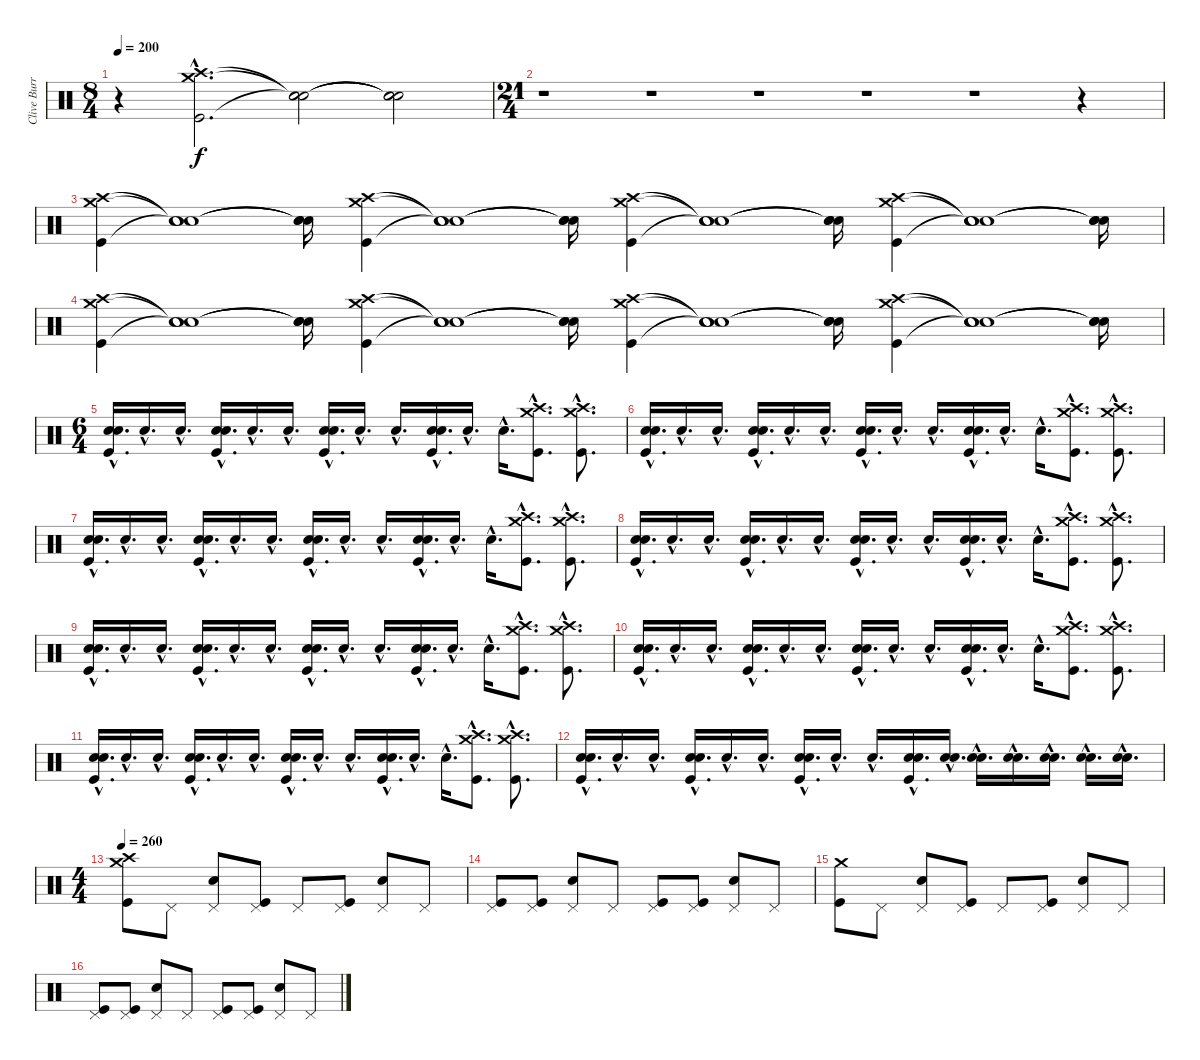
\track ("Clive Burr" "Clive Burr") {instrument percussion}
\staff {score}
\articulation defaults
\ts (8 4)
\tempo 200
\clef neutral
\ks c
r.4{dy f} ("Crash medium (hit)"{hac} "Crash high (hit)"{hac} "Kick (hit)"{hac}).2{d} ("Snare (hit)"{t} "Snare (hit)"{t} "Snare (hit)"{t}).2 ("Snare (hit)"{t} "Snare (hit)"{t} "Snare (hit)"{t}).2 |
\ts (21 4)
r.1 r.1 r.1 r.1 r.1 r.4 |
("Crash medium (hit)" "Crash high (hit)" "Kick (hit)").4 ("Snare (hit)"{t} "Snare (hit)"{t} "Snare (hit)"{t}).1 ("Snare (hit)"{t} "Snare (hit)"{t} "Snare (hit)"{t}).16 ("Crash medium (hit)" "Crash high (hit)" "Kick (hit)").4 ("Snare (hit)"{t} "Snare (hit)"{t} "Snare (hit)"{t}).1 ("Snare (hit)"{t} "Snare (hit)"{t} "Snare (hit)"{t}).16 ("Crash medium (hit)" "Crash high (hit)" "Kick (hit)").4 ("Snare (hit)"{t} "Snare (hit)"{t} "Snare (hit)"{t}).1 ("Snare (hit)"{t} "Snare (hit)"{t} "Snare (hit)"{t}).16 ("Crash medium (hit)" "Crash high (hit)" "Kick (hit)").4 ("Snare (hit)"{t} "Snare (hit)"{t} "Snare (hit)"{t}).1 ("Snare (hit)"{t} "Snare (hit)"{t} "Snare (hit)"{t}).16 |
("Crash medium (hit)" "Crash high (hit)" "Kick (hit)").4 ("Snare (hit)"{t} "Snare (hit)"{t} "Snare (hit)"{t}).1 ("Snare (hit)"{t} "Snare (hit)"{t} "Snare (hit)"{t}).16 ("Crash medium (hit)" "Crash high (hit)" "Kick (hit)").4 ("Snare (hit)"{t} "Snare (hit)"{t} "Snare (hit)"{t}).1 ("Snare (hit)"{t} "Snare (hit)"{t} "Snare (hit)"{t}).16 ("Crash medium (hit)" "Crash high (hit)" "Kick (hit)").4 ("Snare (hit)"{t} "Snare (hit)"{t} "Snare (hit)"{t}).1 ("Snare (hit)"{t} "Snare (hit)"{t} "Snare (hit)"{t}).16 ("Crash medium (hit)" "Crash high (hit)" "Kick (hit)").4 ("Snare (hit)"{t} "Snare (hit)"{t} "Snare (hit)"{t}).1 ("Snare (hit)"{t} "Snare (hit)"{t} "Snare (hit)"{t}).16 |
\ts (6 4)
("Snare (hit) 2"{hac} "Snare (hit) 2"{hac} "Kick (hit)"{hac}).16{d} "Snare (hit) 2"{hac}.16{d} "Snare (hit) 2"{hac}.16{d} ("Snare (hit) 2"{hac} "Snare (hit) 2"{hac} "Kick (hit)"{hac}).16{d} "Snare (hit) 2"{hac}.16{d} "Snare (hit) 2"{hac}.16{d} ("Snare (hit) 2"{hac} "Snare (hit) 2"{hac} "Kick (hit)"{hac}).16{d} "Snare (hit) 2"{hac}.16{d} "Snare (hit) 2"{hac}.16{d} ("Snare (hit) 2"{hac} "Snare (hit) 2"{hac} "Kick (hit)"{hac}).16{d} "Snare (hit) 2"{hac}.16{d} "Snare (hit) 2"{hac}.16{d} ("Crash medium (hit)"{hac} "Crash high (hit)"{hac} "Kick (hit)"{hac}).8{d} ("Crash medium (hit)"{hac} "Crash high (hit)"{hac} "Kick (hit)"{hac}).8{d} |
("Snare (hit) 2"{hac} "Snare (hit) 2"{hac} "Kick (hit)"{hac}).16{d} "Snare (hit) 2"{hac}.16{d} "Snare (hit) 2"{hac}.16{d} ("Snare (hit) 2"{hac} "Snare (hit) 2"{hac} "Kick (hit)"{hac}).16{d} "Snare (hit) 2"{hac}.16{d} "Snare (hit) 2"{hac}.16{d} ("Snare (hit) 2"{hac} "Snare (hit) 2"{hac} "Kick (hit)"{hac}).16{d} "Snare (hit) 2"{hac}.16{d} "Snare (hit) 2"{hac}.16{d} ("Snare (hit) 2"{hac} "Snare (hit) 2"{hac} "Kick (hit)"{hac}).16{d} "Snare (hit) 2"{hac}.16{d} "Snare (hit) 2"{hac}.16{d} ("Crash medium (hit)"{hac} "Crash high (hit)"{hac} "Kick (hit)"{hac}).8{d} ("Crash medium (hit)"{hac} "Crash high (hit)"{hac} "Kick (hit)"{hac}).8{d} |
("Snare (hit) 2"{hac} "Snare (hit) 2"{hac} "Kick (hit)"{hac}).16{d} "Snare (hit) 2"{hac}.16{d} "Snare (hit) 2"{hac}.16{d} ("Snare (hit) 2"{hac} "Snare (hit) 2"{hac} "Kick (hit)"{hac}).16{d} "Snare (hit) 2"{hac}.16{d} "Snare (hit) 2"{hac}.16{d} ("Snare (hit) 2"{hac} "Snare (hit) 2"{hac} "Kick (hit)"{hac}).16{d} "Snare (hit) 2"{hac}.16{d} "Snare (hit) 2"{hac}.16{d} ("Snare (hit) 2"{hac} "Snare (hit) 2"{hac} "Kick (hit)"{hac}).16{d} "Snare (hit) 2"{hac}.16{d} "Snare (hit) 2"{hac}.16{d} ("Crash medium (hit)"{hac} "Crash high (hit)"{hac} "Kick (hit)"{hac}).8{d} ("Crash medium (hit)"{hac} "Crash high (hit)"{hac} "Kick (hit)"{hac}).8{d} |
("Snare (hit) 2"{hac} "Snare (hit) 2"{hac} "Kick (hit)"{hac}).16{d} "Snare (hit) 2"{hac}.16{d} "Snare (hit) 2"{hac}.16{d} ("Snare (hit) 2"{hac} "Snare (hit) 2"{hac} "Kick (hit)"{hac}).16{d} "Snare (hit) 2"{hac}.16{d} "Snare (hit) 2"{hac}.16{d} ("Snare (hit) 2"{hac} "Snare (hit) 2"{hac} "Kick (hit)"{hac}).16{d} "Snare (hit) 2"{hac}.16{d} "Snare (hit) 2"{hac}.16{d} ("Snare (hit) 2"{hac} "Snare (hit) 2"{hac} "Kick (hit)"{hac}).16{d} "Snare (hit) 2"{hac}.16{d} "Snare (hit) 2"{hac}.16{d} ("Crash medium (hit)"{hac} "Crash high (hit)"{hac} "Kick (hit)"{hac}).8{d} ("Crash medium (hit)"{hac} "Crash high (hit)"{hac} "Kick (hit)"{hac}).8{d} |
("Snare (hit) 2"{hac} "Snare (hit) 2"{hac} "Kick (hit)"{hac}).16{d} "Snare (hit) 2"{hac}.16{d} "Snare (hit) 2"{hac}.16{d} ("Snare (hit) 2"{hac} "Snare (hit) 2"{hac} "Kick (hit)"{hac}).16{d} "Snare (hit) 2"{hac}.16{d} "Snare (hit) 2"{hac}.16{d} ("Snare (hit) 2"{hac} "Snare (hit) 2"{hac} "Kick (hit)"{hac}).16{d} "Snare (hit) 2"{hac}.16{d} "Snare (hit) 2"{hac}.16{d} ("Snare (hit) 2"{hac} "Snare (hit) 2"{hac} "Kick (hit)"{hac}).16{d} "Snare (hit) 2"{hac}.16{d} "Snare (hit) 2"{hac}.16{d} ("Crash medium (hit)"{hac} "Crash high (hit)"{hac} "Kick (hit)"{hac}).8{d} ("Crash medium (hit)"{hac} "Crash high (hit)"{hac} "Kick (hit)"{hac}).8{d} |
("Snare (hit) 2"{hac} "Snare (hit) 2"{hac} "Kick (hit)"{hac}).16{d} "Snare (hit) 2"{hac}.16{d} "Snare (hit) 2"{hac}.16{d} ("Snare (hit) 2"{hac} "Snare (hit) 2"{hac} "Kick (hit)"{hac}).16{d} "Snare (hit) 2"{hac}.16{d} "Snare (hit) 2"{hac}.16{d} ("Snare (hit) 2"{hac} "Snare (hit) 2"{hac} "Kick (hit)"{hac}).16{d} "Snare (hit) 2"{hac}.16{d} "Snare (hit) 2"{hac}.16{d} ("Snare (hit) 2"{hac} "Snare (hit) 2"{hac} "Kick (hit)"{hac}).16{d} "Snare (hit) 2"{hac}.16{d} "Snare (hit) 2"{hac}.16{d} ("Crash medium (hit)"{hac} "Crash high (hit)"{hac} "Kick (hit)"{hac}).8{d} ("Crash medium (hit)"{hac} "Crash high (hit)"{hac} "Kick (hit)"{hac}).8{d} |
("Snare (hit) 2"{hac} "Snare (hit) 2"{hac} "Kick (hit)"{hac}).16{d} "Snare (hit) 2"{hac}.16{d} "Snare (hit) 2"{hac}.16{d} ("Snare (hit) 2"{hac} "Snare (hit) 2"{hac} "Kick (hit)"{hac}).16{d} "Snare (hit) 2"{hac}.16{d} "Snare (hit) 2"{hac}.16{d} ("Snare (hit) 2"{hac} "Snare (hit) 2"{hac} "Kick (hit)"{hac}).16{d} "Snare (hit) 2"{hac}.16{d} "Snare (hit) 2"{hac}.16{d} ("Snare (hit) 2"{hac} "Snare (hit) 2"{hac} "Kick (hit)"{hac}).16{d} "Snare (hit) 2"{hac}.16{d} "Snare (hit) 2"{hac}.16{d} ("Crash medium (hit)"{hac} "Crash high (hit)"{hac} "Kick (hit)"{hac}).8{d} ("Crash medium (hit)"{hac} "Crash high (hit)"{hac} "Kick (hit)"{hac}).8{d} |
("Snare (hit) 2"{hac} "Snare (hit) 2"{hac} "Kick (hit)"{hac}).16{d} "Snare (hit) 2"{hac}.16{d} "Snare (hit) 2"{hac}.16{d} ("Snare (hit) 2"{hac} "Snare (hit) 2"{hac} "Kick (hit)"{hac}).16{d} "Snare (hit) 2"{hac}.16{d} "Snare (hit) 2"{hac}.16{d} ("Snare (hit) 2"{hac} "Snare (hit) 2"{hac} "Kick (hit)"{hac}).16{d} "Snare (hit) 2"{hac}.16{d} "Snare (hit) 2"{hac}.16{d} ("Snare (hit) 2"{hac} "Snare (hit) 2"{hac} "Kick (hit)"{hac}).16{d} ("Snare (hit) 2"{hac} "Snare (hit) 2"{hac}).16{d} ("Snare (hit) 2"{hac} "Snare (hit) 2"{hac}).16{d} ("Snare (hit) 2"{hac} "Snare (hit) 2"{hac}).16{d} ("Snare (hit) 2"{hac} "Snare (hit) 2"{hac}).16{d} ("Snare (hit) 2"{hac} "Snare (hit) 2"{hac}).16{d} ("Snare (hit) 2"{hac} "Snare (hit) 2"{hac}).16{d} |
\ts (4 4)
\tempo 260
("Crash medium (hit)" "Crash high (hit)" "Kick (hit)").8 "Pedal Hi-Hat (hit)".8 ("Pedal Hi-Hat (hit)" "Snare (hit) 2").8 ("Pedal Hi-Hat (hit)" "Kick (hit)").8 "Pedal Hi-Hat (hit)".8 ("Pedal Hi-Hat (hit)" "Kick (hit)").8 ("Pedal Hi-Hat (hit)" "Snare (hit) 2").8 "Pedal Hi-Hat (hit)".8 |
("Pedal Hi-Hat (hit)" "Kick (hit)").8 ("Pedal Hi-Hat (hit)" "Kick (hit)").8 ("Pedal Hi-Hat (hit)" "Snare (hit) 2").8 "Pedal Hi-Hat (hit)".8 ("Pedal Hi-Hat (hit)" "Kick (hit)").8 ("Pedal Hi-Hat (hit)" "Kick (hit)").8 ("Pedal Hi-Hat (hit)" "Snare (hit) 2").8 "Pedal Hi-Hat (hit)".8 |
("Crash medium (hit)" "Kick (hit)").8 "Pedal Hi-Hat (hit)".8 ("Pedal Hi-Hat (hit)" "Snare (hit) 2").8 ("Pedal Hi-Hat (hit)" "Kick (hit)").8 "Pedal Hi-Hat (hit)".8 ("Pedal Hi-Hat (hit)" "Kick (hit)").8 ("Pedal Hi-Hat (hit)" "Snare (hit) 2").8 "Pedal Hi-Hat (hit)".8 |
("Pedal Hi-Hat (hit)" "Kick (hit)").8 ("Pedal Hi-Hat (hit)" "Kick (hit)").8 ("Pedal Hi-Hat (hit)" "Snare (hit) 2").8 "Pedal Hi-Hat (hit)".8 ("Pedal Hi-Hat (hit)" "Kick (hit)").8 ("Pedal Hi-Hat (hit)" "Kick (hit)").8 ("Pedal Hi-Hat (hit)" "Snare (hit) 2").8 "Pedal Hi-Hat (hit)".8
